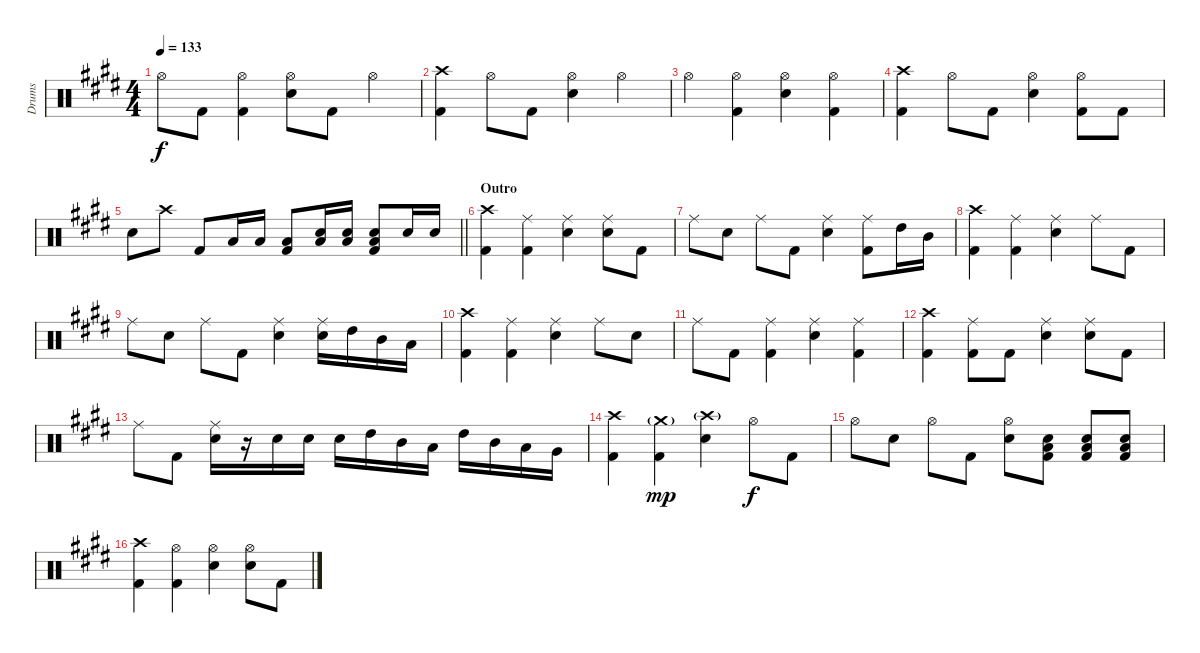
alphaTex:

\track ("Drums" "Drums") {instrument percussion}
\staff {score}
\articulation defaults
\ts (4 4)
\tempo 133
\clef neutral
\ks e "Hi-Hat (open)".8{dy f} "Kick (hit) 2".8
("Hi-Hat (open)" "Kick (hit) 2").4 ("Hi-Hat (open)" "Electric Snare (hit)").8 "Kick (hit) 2".8 "Hi-Hat (open)".4 |
("Crash high (hit)" "Kick (hit) 2").4 "Hi-Hat (open)".8 "Kick (hit) 2".8 ("Hi-Hat (open)" "Electric Snare (hit)").4 "Hi-Hat (open)".4 |
"Hi-Hat (open)".4 ("Hi-Hat (open)" "Kick (hit) 2").4 ("Hi-Hat (open)" "Electric Snare (hit)").4 ("Hi-Hat (open)" "Kick (hit) 2").4 |
("Crash high (hit)" "Kick (hit) 2").4 "Hi-Hat (open)".8 "Kick (hit) 2".8 ("Hi-Hat (open)" "Electric Snare (hit)").4 ("Hi-Hat (open)" "Kick (hit) 2").8 "Kick (hit) 2".8 |
\barLineRight lightlight "Electric Snare (hit)".8 "Crash high (hit)".8 "Kick (hit) 2".8 "Low Floor Tom (hit)".16 "Low Floor Tom (hit)".16
("Low Floor Tom (hit)" "Kick (hit) 2").8 ("Electric Snare (hit)" "Low Floor Tom (hit)").16 ("Electric Snare (hit)" "Low Floor Tom (hit)").16 ("Electric Snare (hit)" "Low Floor Tom (hit)" "Kick (hit) 2").8 "Electric Snare (hit)".16 "Electric Snare (hit)".16 |
\section ("" "Outro")
("Crash high (hit)" "Kick (hit) 2").4 ("Ride (middle)" "Kick (hit) 2").4 ("Ride (middle)" "Electric Snare (hit)").4 ("Ride (middle)" "Electric Snare (hit)").8 "Kick (hit) 2".8 |
"Ride (middle)".8 "Electric Snare (hit)".8 "Ride (middle)".8 "Kick (hit) 2".8 ("Ride (middle)" "Electric Snare (hit)").4 ("Ride (middle)" "Kick (hit) 2").8 "High Tom (hit)".16 "Mid Tom (hit)".16 |
("Crash high (hit)" "Kick (hit) 2").4 ("Ride (middle)" "Kick (hit) 2").4 ("Ride (middle)" "Electric Snare (hit)").4 "Ride (middle)".8 "Kick (hit) 2".8 |
"Ride (middle)".8 "Electric Snare (hit)".8 "Ride (middle)".8 "Kick (hit) 2".8 ("Ride (middle)" "Electric Snare (hit)").4 ("Ride (middle)" "Electric Snare (hit)").16 "High Tom (hit)".16 "Mid Tom (hit)".16 "Low Tom (hit)".16 |
("Crash high (hit)" "Kick (hit) 2").4 ("Ride (middle)" "Kick (hit) 2").4 ("Ride (middle)" "Electric Snare (hit)").4 "Ride (middle)".8 "Electric Snare (hit)".8 |
"Ride (middle)".8 "Kick (hit) 2".8 ("Ride (middle)" "Kick (hit) 2").4 ("Ride (middle)" "Electric Snare (hit)").4 ("Ride (middle)" "Kick (hit) 2").4 |
("Crash high (hit)" "Kick (hit) 2").4 ("Ride (middle)" "Kick (hit) 2").8 "Kick (hit) 2".8 ("Ride (middle)" "Electric Snare (hit)").4 ("Ride (middle)" "Electric Snare (hit)").8 "Kick (hit) 2".8 |
"Ride (middle)".8 "Kick (hit) 2".8 ("Ride (middle)" "Electric Snare (hit)").16 r.16 "Electric Snare (hit)".16 "Electric Snare (hit)".16 "Electric Snare (hit)".16 "High Tom (hit)".16 "Mid Tom (hit)".16 "Low Tom (hit)".16 "High Tom (hit)".16 "Mid Tom (hit)".16 "Low Tom (hit)".16 "Very Low Tom (hit)".16 |
("Crash high (hit)" "Kick (hit) 2").4 ("Crash medium (hit)"{g} "Kick (hit) 2").4{dy mp} ("Crash high (hit)"{g} "Electric Snare (hit)").4 "Hi-Hat (open)".8{dy f} "Kick (hit) 2".8 |
"Hi-Hat (open)".8 "Electric Snare (hit)".8 "Hi-Hat (open)".8 "Kick (hit) 2".8 ("Hi-Hat (open)" "Electric Snare (hit)").8 ("Electric Snare (hit)" "Low Floor Tom (hit)" "Kick (hit) 2").8 ("Electric Snare (hit)" "Low Floor Tom (hit)" "Kick (hit) 2").8 ("Electric Snare (hit)" "Low Floor Tom (hit)" "Kick (hit) 2").8 |
("Crash high (hit)" "Kick (hit) 2").4 ("Hi-Hat (open)" "Kick (hit) 2").4 ("Hi-Hat (open)" "Electric Snare (hit)").4 ("Hi-Hat (open)" "Electric Snare (hit)").8 "Kick (hit) 2".8
